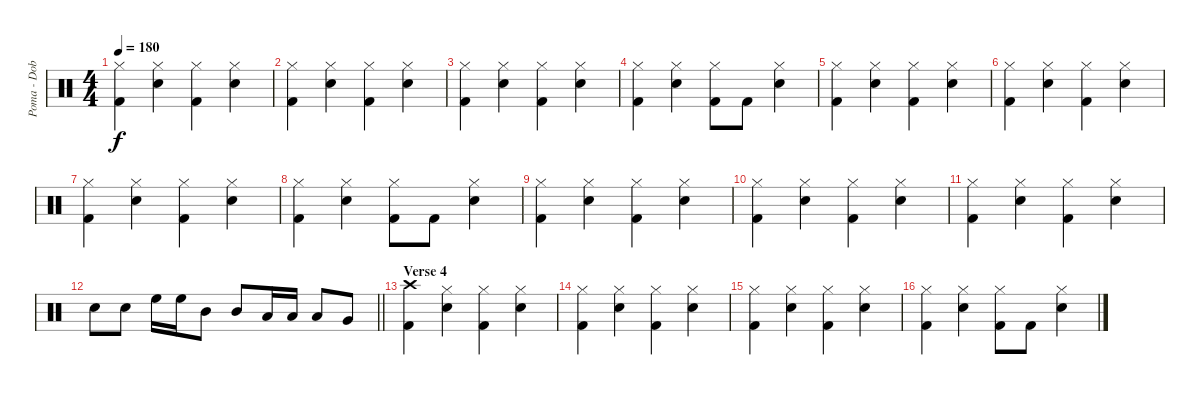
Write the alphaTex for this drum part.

\track ("Poma - Dob" "Poma - Dob") {instrument percussion}
\staff {score}
\articulation defaults
\ts (4 4)
\tempo 180
\clef neutral
\ks c
("Hi-Hat (closed)" "Kick (hit) 2").4{dy f} ("Hi-Hat (closed)" "Electric Snare (hit)").4 ("Hi-Hat (closed)" "Kick (hit) 2").4 ("Hi-Hat (closed)" "Electric Snare (hit)").4 |
("Hi-Hat (closed)" "Kick (hit) 2").4 ("Hi-Hat (closed)" "Electric Snare (hit)").4 ("Hi-Hat (closed)" "Kick (hit) 2").4 ("Hi-Hat (closed)" "Electric Snare (hit)").4 |
("Hi-Hat (closed)" "Kick (hit) 2").4 ("Hi-Hat (closed)" "Electric Snare (hit)").4 ("Hi-Hat (closed)" "Kick (hit) 2").4 ("Hi-Hat (closed)" "Electric Snare (hit)").4 |
("Hi-Hat (closed)" "Kick (hit) 2").4 ("Hi-Hat (closed)" "Electric Snare (hit)").4 ("Hi-Hat (closed)" "Kick (hit) 2").8 "Kick (hit) 2".8 ("Hi-Hat (closed)" "Electric Snare (hit)").4 |
("Hi-Hat (closed)" "Kick (hit) 2").4 ("Hi-Hat (closed)" "Electric Snare (hit)").4 ("Hi-Hat (closed)" "Kick (hit) 2").4 ("Hi-Hat (closed)" "Electric Snare (hit)").4 |
("Hi-Hat (closed)" "Kick (hit) 2").4 ("Hi-Hat (closed)" "Electric Snare (hit)").4 ("Hi-Hat (closed)" "Kick (hit) 2").4 ("Hi-Hat (closed)" "Electric Snare (hit)").4 |
("Hi-Hat (closed)" "Kick (hit) 2").4 ("Hi-Hat (closed)" "Electric Snare (hit)").4 ("Hi-Hat (closed)" "Kick (hit) 2").4 ("Hi-Hat (closed)" "Electric Snare (hit)").4 |
("Hi-Hat (closed)" "Kick (hit) 2").4 ("Hi-Hat (closed)" "Electric Snare (hit)").4 ("Hi-Hat (closed)" "Kick (hit) 2").8 "Kick (hit) 2".8 ("Hi-Hat (closed)" "Electric Snare (hit)").4 |
("Hi-Hat (closed)" "Kick (hit) 2").4 ("Hi-Hat (closed)" "Electric Snare (hit)").4 ("Hi-Hat (closed)" "Kick (hit) 2").4 ("Hi-Hat (closed)" "Electric Snare (hit)").4 |
("Hi-Hat (closed)" "Kick (hit) 2").4 ("Hi-Hat (closed)" "Electric Snare (hit)").4 ("Hi-Hat (closed)" "Kick (hit) 2").4 ("Hi-Hat (closed)" "Electric Snare (hit)").4 |
("Hi-Hat (closed)" "Kick (hit) 2").4 ("Hi-Hat (closed)" "Electric Snare (hit)").4 ("Hi-Hat (closed)" "Kick (hit) 2").4 ("Hi-Hat (closed)" "Electric Snare (hit)").4 |
\barLineRight lightlight "Electric Snare (hit)".8 "Electric Snare (hit)".8 "High Floor Tom (hit)".16 "High Floor Tom (hit)".16 "Mid Tom (hit)".8 "Mid Tom (hit)".8 "Low Tom (hit)".16 "Low Tom (hit)".16 "Low Tom (hit)".8 "Very Low Tom (hit)".8
|
\section ("" "Verse 4")
("Crash high (hit)" "Kick (hit) 2").4 ("Hi-Hat (closed)" "Electric Snare (hit)").4 ("Hi-Hat (closed)" "Kick (hit) 2").4 ("Hi-Hat (closed)" "Electric Snare (hit)").4 |
("Hi-Hat (closed)" "Kick (hit) 2").4 ("Hi-Hat (closed)" "Electric Snare (hit)").4 ("Hi-Hat (closed)" "Kick (hit) 2").4 ("Hi-Hat (closed)" "Electric Snare (hit)").4 |
("Hi-Hat (closed)" "Kick (hit) 2").4 ("Hi-Hat (closed)" "Electric Snare (hit)").4 ("Hi-Hat (closed)" "Kick (hit) 2").4 ("Hi-Hat (closed)" "Electric Snare (hit)").4 |
("Hi-Hat (closed)" "Kick (hit) 2").4 ("Hi-Hat (closed)" "Electric Snare (hit)").4 ("Hi-Hat (closed)" "Kick (hit) 2").8 "Kick (hit) 2".8 ("Hi-Hat (closed)" "Electric Snare (hit)").4
